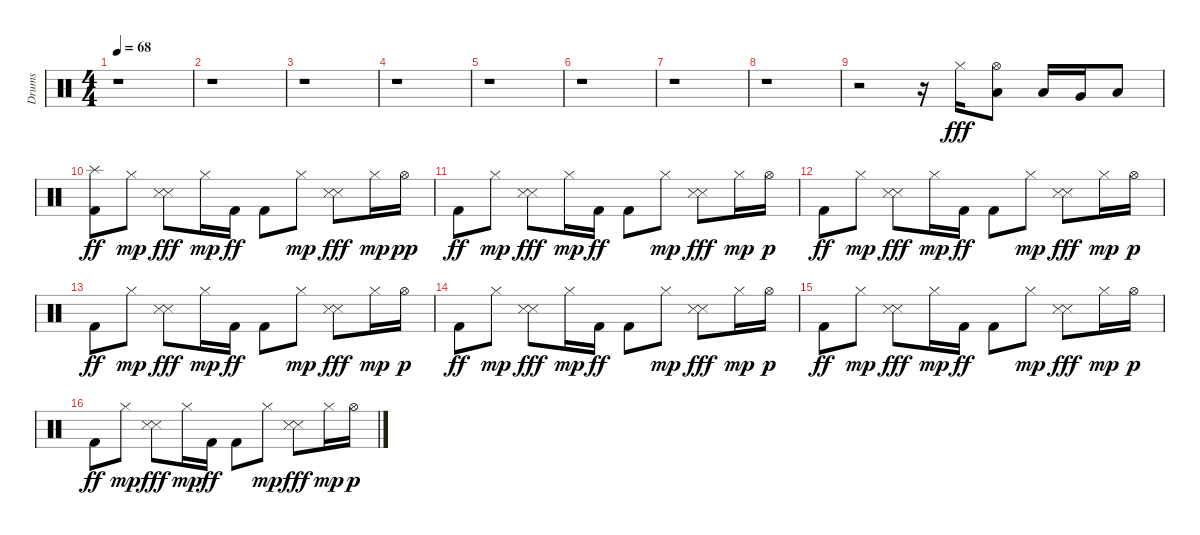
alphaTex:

\track ("Drums" "Drums") {instrument percussion}
\staff {score}
\articulation defaults
\ts (4 4)
\tempo 68
\clef neutral
\ks c
r.1{dy fff} |
r.1 |
r.1 |
r.1 |
r.1 |
r.1 |
r.1 |
r.1 |
r.2 r.16 "Hi-Hat (closed)".16 ("Hi-Hat (open)" "Low Floor Tom (hit)").8 "Low Tom (hit)".16 "Very Low Tom (hit)".16 "Low Floor Tom (hit)".8 |
("Splash (hit)" "Kick (hit) 2").8{dy ff} "Hi-Hat (closed)".8{dy mp} ("Snare (side stick) 3" "Snare (side stick) 3").8{dy fff} "Hi-Hat (closed)".16{dy mp} "Kick (hit) 2".16{dy ff} "Kick (hit) 2".8 "Hi-Hat (closed)".8{dy mp} ("Snare (side stick) 3" "Snare (side stick) 3").8{dy fff} "Hi-Hat (closed)".16{dy mp} "Hi-Hat (open)".16{dy pp} |
"Kick (hit) 2".8{dy ff} "Hi-Hat (closed)".8{dy mp} ("Snare (side stick) 3" "Snare (side stick) 3").8{dy fff} "Hi-Hat (closed)".16{dy mp} "Kick (hit) 2".16{dy ff} "Kick (hit) 2".8 "Hi-Hat (closed)".8{dy mp} ("Snare (side stick) 3" "Snare (side stick) 3").8{dy fff} "Hi-Hat (closed)".16{dy mp} "Hi-Hat (open)".16{dy p} |
"Kick (hit) 2".8{dy ff} "Hi-Hat (closed)".8{dy mp} ("Snare (side stick) 3" "Snare (side stick) 3").8{dy fff} "Hi-Hat (closed)".16{dy mp} "Kick (hit) 2".16{dy ff} "Kick (hit) 2".8 "Hi-Hat (closed)".8{dy mp} ("Snare (side stick) 3" "Snare (side stick) 3").8{dy fff} "Hi-Hat (closed)".16{dy mp} "Hi-Hat (open)".16{dy p} |
"Kick (hit) 2".8{dy ff} "Hi-Hat (closed)".8{dy mp} ("Snare (side stick) 3" "Snare (side stick) 3").8{dy fff} "Hi-Hat (closed)".16{dy mp} "Kick (hit) 2".16{dy ff} "Kick (hit) 2".8 "Hi-Hat (closed)".8{dy mp} ("Snare (side stick) 3" "Snare (side stick) 3").8{dy fff} "Hi-Hat (closed)".16{dy mp} "Hi-Hat (open)".16{dy p} |
"Kick (hit) 2".8{dy ff} "Hi-Hat (closed)".8{dy mp} ("Snare (side stick) 3" "Snare (side stick) 3").8{dy fff} "Hi-Hat (closed)".16{dy mp} "Kick (hit) 2".16{dy ff} "Kick (hit) 2".8 "Hi-Hat (closed)".8{dy mp} ("Snare (side stick) 3" "Snare (side stick) 3").8{dy fff} "Hi-Hat (closed)".16{dy mp} "Hi-Hat (open)".16{dy p} |
"Kick (hit) 2".8{dy ff} "Hi-Hat (closed)".8{dy mp} ("Snare (side stick) 3" "Snare (side stick) 3").8{dy fff} "Hi-Hat (closed)".16{dy mp} "Kick (hit) 2".16{dy ff} "Kick (hit) 2".8 "Hi-Hat (closed)".8{dy mp} ("Snare (side stick) 3" "Snare (side stick) 3").8{dy fff} "Hi-Hat (closed)".16{dy mp} "Hi-Hat (open)".16{dy p} |
"Kick (hit) 2".8{dy ff} "Hi-Hat (closed)".8{dy mp} ("Snare (side stick) 3" "Snare (side stick) 3").8{dy fff} "Hi-Hat (closed)".16{dy mp} "Kick (hit) 2".16{dy ff} "Kick (hit) 2".8 "Hi-Hat (closed)".8{dy mp} ("Snare (side stick) 3" "Snare (side stick) 3").8{dy fff} "Hi-Hat (closed)".16{dy mp} "Hi-Hat (open)".16{dy p}
